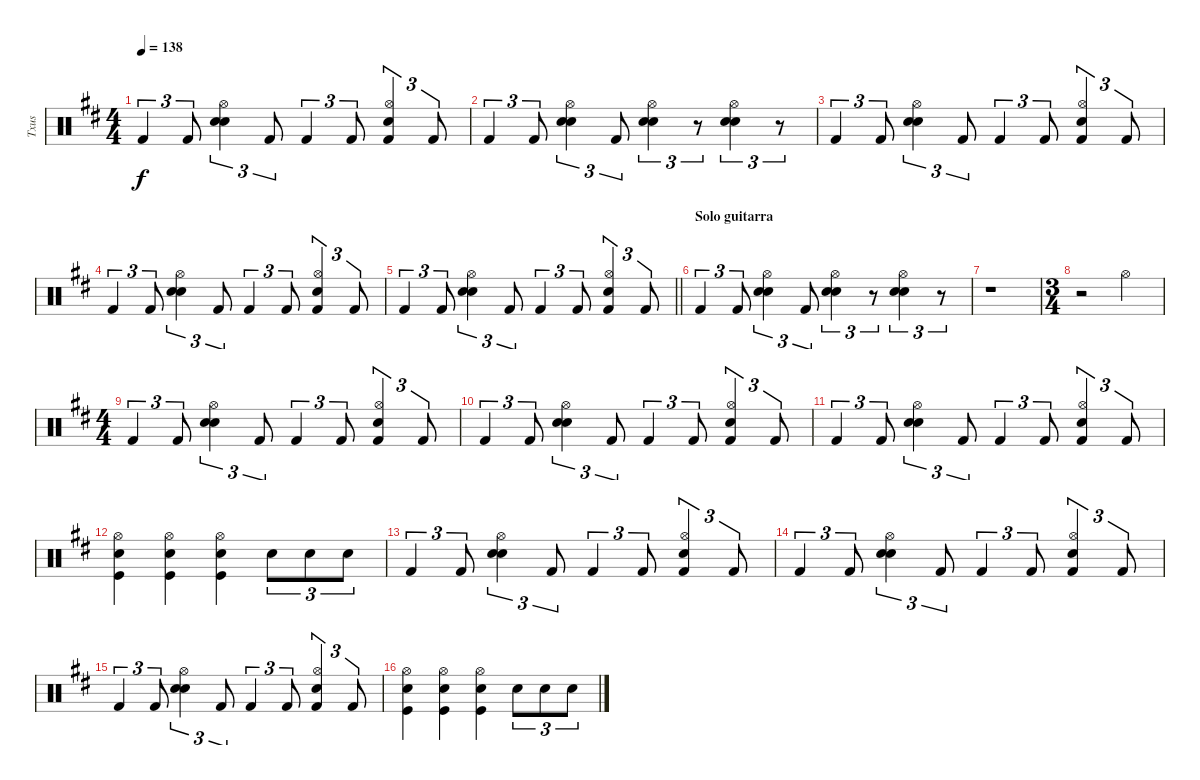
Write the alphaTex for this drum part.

\track ("Txus" "Txus") {instrument percussion}
\staff {score}
\articulation defaults
\ts (4 4)
\tempo 138
\clef neutral
\ks d "Kick (hit) 2".4{tu (3 2) dy f} "Kick (hit) 2".8{tu (3 2)}
("Hi-Hat (open)" "Electric Snare (hit)" "Snare (hit) 2").4{tu (3 2)} "Kick (hit) 2".8{tu (3 2)} "Kick (hit) 2".4{tu (3 2)} "Kick (hit) 2".8{tu (3 2)} ("Hi-Hat (open)" "Electric Snare (hit)" "Kick (hit) 2").4{tu (3 2)} "Kick (hit) 2".8{tu (3 2)} |
"Kick (hit) 2".4{tu (3 2)} "Kick (hit) 2".8{tu (3 2)} ("Hi-Hat (open)" "Electric Snare (hit)" "Snare (hit) 2").4{tu (3 2)} "Kick (hit) 2".8{tu (3 2)} ("Hi-Hat (open)" "Electric Snare (hit)" "Snare (hit) 2").4{tu (3 2)} r.8{tu (3 2)} ("Hi-Hat (open)" "Electric Snare (hit)" "Snare (hit) 2").4{tu (3 2)} r.8{tu (3 2)} |
"Kick (hit) 2".4{tu (3 2)} "Kick (hit) 2".8{tu (3 2)} ("Hi-Hat (open)" "Electric Snare (hit)" "Snare (hit) 2").4{tu (3 2)} "Kick (hit) 2".8{tu (3 2)} "Kick (hit) 2".4{tu (3 2)} "Kick (hit) 2".8{tu (3 2)} ("Hi-Hat (open)" "Electric Snare (hit)" "Kick (hit) 2").4{tu (3 2)} "Kick (hit) 2".8{tu (3 2)} |
"Kick (hit) 2".4{tu (3 2)} "Kick (hit) 2".8{tu (3 2)} ("Hi-Hat (open)" "Electric Snare (hit)" "Snare (hit) 2").4{tu (3 2)} "Kick (hit) 2".8{tu (3 2)} "Kick (hit) 2".4{tu (3 2)} "Kick (hit) 2".8{tu (3 2)} ("Hi-Hat (open)" "Electric Snare (hit)" "Kick (hit) 2").4{tu (3 2)} "Kick (hit) 2".8{tu (3 2)} |
\barLineRight lightlight "Kick (hit) 2".4{tu (3 2)} "Kick (hit) 2".8{tu (3 2)}
("Hi-Hat (open)" "Electric Snare (hit)" "Snare (hit) 2").4{tu (3 2)} "Kick (hit) 2".8{tu (3 2)} "Kick (hit) 2".4{tu (3 2)} "Kick (hit) 2".8{tu (3 2)} ("Hi-Hat (open)" "Electric Snare (hit)" "Kick (hit) 2").4{tu (3 2)} "Kick (hit) 2".8{tu (3 2)} |
\section ("" "Solo guitarra")
"Kick (hit) 2".4{tu (3 2)} "Kick (hit) 2".8{tu (3 2)} ("Hi-Hat (open)" "Electric Snare (hit)" "Snare (hit) 2").4{tu (3 2)} "Kick (hit) 2".8{tu (3 2)} ("Hi-Hat (open)" "Electric Snare (hit)" "Snare (hit) 2").4{tu (3 2)} r.8{tu (3 2)} ("Hi-Hat (open)" "Electric Snare (hit)" "Snare (hit) 2").4{tu (3 2)} r.8{tu (3 2)} |
r.1 |
\ts (3 4)
r.2 "Hi-Hat (open)".4 |
\ts (4 4)
"Kick (hit) 2".4{tu (3 2)} "Kick (hit) 2".8{tu (3 2)} ("Hi-Hat (open)" "Electric Snare (hit)" "Snare (hit) 2").4{tu (3 2)} "Kick (hit) 2".8{tu (3 2)} "Kick (hit) 2".4{tu (3 2)} "Kick (hit) 2".8{tu (3 2)} ("Hi-Hat (open)" "Electric Snare (hit)" "Kick (hit) 2").4{tu (3 2)} "Kick (hit) 2".8{tu (3 2)} |
"Kick (hit) 2".4{tu (3 2)} "Kick (hit) 2".8{tu (3 2)} ("Hi-Hat (open)" "Electric Snare (hit)" "Snare (hit) 2").4{tu (3 2)} "Kick (hit) 2".8{tu (3 2)} "Kick (hit) 2".4{tu (3 2)} "Kick (hit) 2".8{tu (3 2)} ("Hi-Hat (open)" "Electric Snare (hit)" "Kick (hit) 2").4{tu (3 2)} "Kick (hit) 2".8{tu (3 2)} |
"Kick (hit) 2".4{tu (3 2)} "Kick (hit) 2".8{tu (3 2)} ("Hi-Hat (open)" "Electric Snare (hit)" "Snare (hit) 2").4{tu (3 2)} "Kick (hit) 2".8{tu (3 2)} "Kick (hit) 2".4{tu (3 2)} "Kick (hit) 2".8{tu (3 2)} ("Hi-Hat (open)" "Electric Snare (hit)" "Kick (hit) 2").4{tu (3 2)} "Kick (hit) 2".8{tu (3 2)} |
("Hi-Hat (open)" "Electric Snare (hit)" "Kick (hit)").4 ("Hi-Hat (open)" "Electric Snare (hit)" "Kick (hit)").4 ("Hi-Hat (open)" "Electric Snare (hit)" "Kick (hit)").4 "Electric Snare (hit)".8{tu (3 2)} "Electric Snare (hit)".8{tu (3 2)} "Electric Snare (hit)".8{tu (3 2)} |
"Kick (hit) 2".4{tu (3 2)} "Kick (hit) 2".8{tu (3 2)} ("Hi-Hat (open)" "Electric Snare (hit)" "Snare (hit) 2").4{tu (3 2)} "Kick (hit) 2".8{tu (3 2)} "Kick (hit) 2".4{tu (3 2)} "Kick (hit) 2".8{tu (3 2)} ("Hi-Hat (open)" "Electric Snare (hit)" "Kick (hit) 2").4{tu (3 2)} "Kick (hit) 2".8{tu (3 2)} |
"Kick (hit) 2".4{tu (3 2)} "Kick (hit) 2".8{tu (3 2)} ("Hi-Hat (open)" "Electric Snare (hit)" "Snare (hit) 2").4{tu (3 2)} "Kick (hit) 2".8{tu (3 2)} "Kick (hit) 2".4{tu (3 2)} "Kick (hit) 2".8{tu (3 2)} ("Hi-Hat (open)" "Electric Snare (hit)" "Kick (hit) 2").4{tu (3 2)} "Kick (hit) 2".8{tu (3 2)} |
"Kick (hit) 2".4{tu (3 2)} "Kick (hit) 2".8{tu (3 2)} ("Hi-Hat (open)" "Electric Snare (hit)" "Snare (hit) 2").4{tu (3 2)} "Kick (hit) 2".8{tu (3 2)} "Kick (hit) 2".4{tu (3 2)} "Kick (hit) 2".8{tu (3 2)} ("Hi-Hat (open)" "Electric Snare (hit)" "Kick (hit) 2").4{tu (3 2)} "Kick (hit) 2".8{tu (3 2)} |
("Hi-Hat (open)" "Electric Snare (hit)" "Kick (hit)").4 ("Hi-Hat (open)" "Electric Snare (hit)" "Kick (hit)").4 ("Hi-Hat (open)" "Electric Snare (hit)" "Kick (hit)").4 "Electric Snare (hit)".8{tu (3 2)} "Electric Snare (hit)".8{tu (3 2)} "Electric Snare (hit)".8{tu (3 2)}
